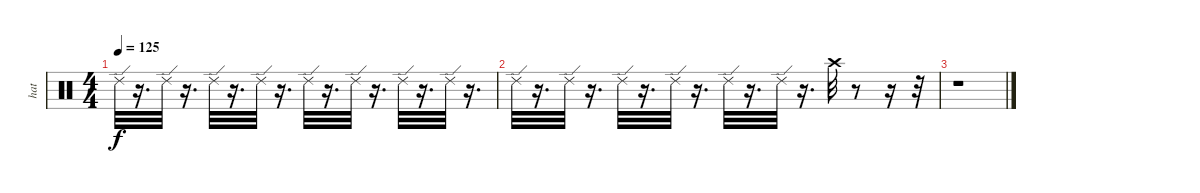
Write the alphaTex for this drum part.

\track ("hat" "hat") {instrument percussion}
\staff {score}
\articulation defaults
\ts (4 4)
\tempo 125
\clef neutral
\ks c "Ride (edge) 2".32{dy f}
r.16{d} "Ride (edge) 2".32 r.16{d} "Ride (edge) 2".32 r.16{d} "Ride (edge) 2".32 r.16{d} "Ride (edge) 2".32 r.16{d} "Ride (edge) 2".32 r.16{d} "Ride (edge) 2".32 r.16{d} "Ride (edge) 2".32 r.16{d} |
"Ride (edge) 2".32 r.16{d} "Ride (edge) 2".32 r.16{d} "Ride (edge) 2".32 r.16{d} "Ride (edge) 2".32 r.16{d} "Ride (edge) 2".32 r.16{d} "Ride (edge) 2".32 r.16{d} "Crash high (hit)".32 r.8 r.16 r.32 |
r.1
